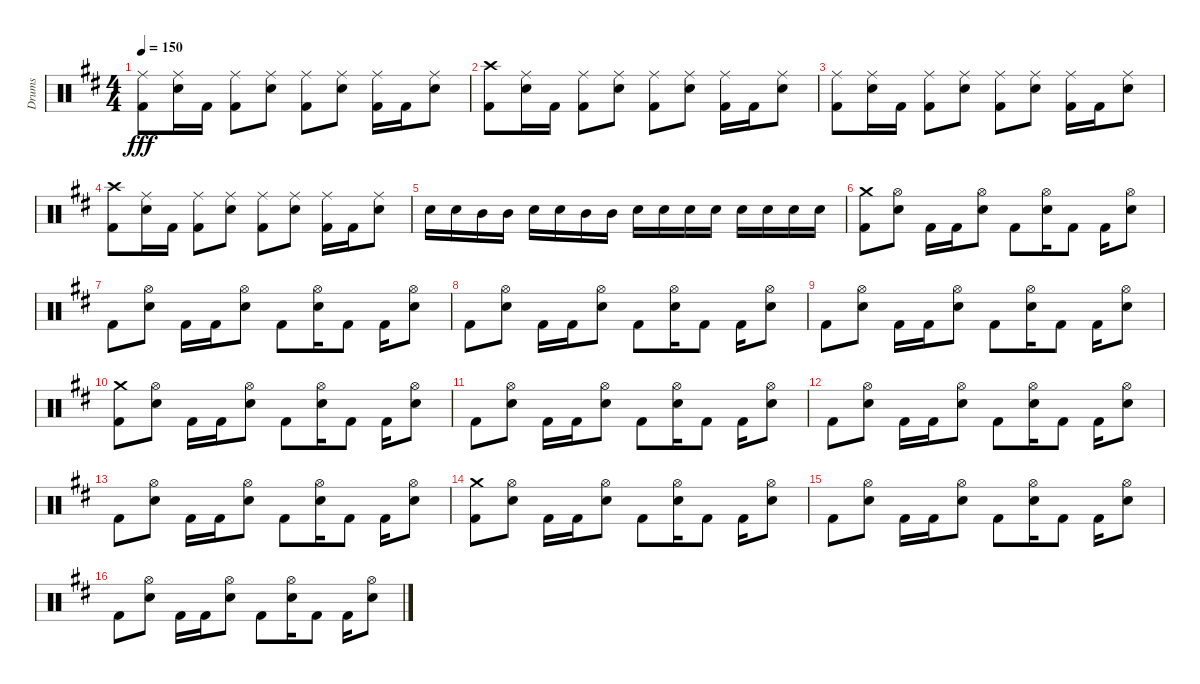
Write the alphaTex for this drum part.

\track ("Drums" "Drums") {instrument percussion}
\staff {score}
\articulation defaults
\ts (4 4)
\tempo 150
\clef neutral
\ks d
("Ride (middle)" "Kick (hit) 2").8{dy fff} ("Ride (middle)" "Electric Snare (hit)").16 "Kick (hit) 2".16 ("Ride (middle)" "Kick (hit) 2").8 ("Ride (middle)" "Electric Snare (hit)").8 ("Ride (middle)" "Kick (hit) 2").8 ("Ride (middle)" "Electric Snare (hit)").8 ("Ride (middle)" "Kick (hit) 2").16 "Kick (hit) 2".16 ("Ride (middle)" "Electric Snare (hit)").8 |
("Crash high (hit)" "Kick (hit) 2").8 ("Ride (middle)" "Electric Snare (hit)").16 "Kick (hit) 2".16 ("Ride (middle)" "Kick (hit) 2").8 ("Ride (middle)" "Electric Snare (hit)").8 ("Ride (middle)" "Kick (hit) 2").8 ("Ride (middle)" "Electric Snare (hit)").8 ("Ride (middle)" "Kick (hit) 2").16 "Kick (hit) 2".16 ("Ride (middle)" "Electric Snare (hit)").8 |
("Ride (middle)" "Kick (hit) 2").8 ("Ride (middle)" "Electric Snare (hit)").16 "Kick (hit) 2".16 ("Ride (middle)" "Kick (hit) 2").8 ("Ride (middle)" "Electric Snare (hit)").8 ("Ride (middle)" "Kick (hit) 2").8 ("Ride (middle)" "Electric Snare (hit)").8 ("Ride (middle)" "Kick (hit) 2").16 "Kick (hit) 2".16 ("Ride (middle)" "Electric Snare (hit)").8 |
("Crash high (hit)" "Kick (hit) 2").8 ("Ride (middle)" "Electric Snare (hit)").16 "Kick (hit) 2".16 ("Ride (middle)" "Kick (hit) 2").8 ("Ride (middle)" "Electric Snare (hit)").8 ("Ride (middle)" "Kick (hit) 2").8 ("Ride (middle)" "Electric Snare (hit)").8 ("Ride (middle)" "Kick (hit) 2").16 "Kick (hit) 2".16 ("Ride (middle)" "Electric Snare (hit)").8 |
"Electric Snare (hit)".16 "Electric Snare (hit)".16 "Mid Tom (hit)".16 "Mid Tom (hit)".16 "Electric Snare (hit)".16 "Electric Snare (hit)".16 "Mid Tom (hit)".16 "Mid Tom (hit)".16 "Electric Snare (hit)".16 "Electric Snare (hit)".16 "Electric Snare (hit)".16 "Electric Snare (hit)".16 "Electric Snare (hit)".16 "Electric Snare (hit)".16 "Electric Snare (hit)".16 "Electric Snare (hit)".16 |
("Crash medium (hit)" "Kick (hit) 2").8 ("Hi-Hat (open)" "Electric Snare (hit)").8 "Kick (hit) 2".16 "Kick (hit) 2".16 ("Hi-Hat (open)" "Electric Snare (hit)").8 "Kick (hit) 2".8 ("Hi-Hat (open)" "Electric Snare (hit)").16 "Kick (hit) 2".8 "Kick (hit) 2".16 ("Hi-Hat (open)" "Electric Snare (hit)").8 |
"Kick (hit) 2".8 ("Hi-Hat (open)" "Electric Snare (hit)").8 "Kick (hit) 2".16 "Kick (hit) 2".16 ("Hi-Hat (open)" "Electric Snare (hit)").8 "Kick (hit) 2".8 ("Hi-Hat (open)" "Electric Snare (hit)").16 "Kick (hit) 2".8 "Kick (hit) 2".16 ("Hi-Hat (open)" "Electric Snare (hit)").8 |
"Kick (hit) 2".8 ("Hi-Hat (open)" "Electric Snare (hit)").8 "Kick (hit) 2".16 "Kick (hit) 2".16 ("Hi-Hat (open)" "Electric Snare (hit)").8 "Kick (hit) 2".8 ("Hi-Hat (open)" "Electric Snare (hit)").16 "Kick (hit) 2".8 "Kick (hit) 2".16 ("Hi-Hat (open)" "Electric Snare (hit)").8 |
"Kick (hit) 2".8 ("Hi-Hat (open)" "Electric Snare (hit)").8 "Kick (hit) 2".16 "Kick (hit) 2".16 ("Hi-Hat (open)" "Electric Snare (hit)").8 "Kick (hit) 2".8 ("Hi-Hat (open)" "Electric Snare (hit)").16 "Kick (hit) 2".8 "Kick (hit) 2".16 ("Hi-Hat (open)" "Electric Snare (hit)").8 |
("Crash medium (hit)" "Kick (hit) 2").8 ("Hi-Hat (open)" "Electric Snare (hit)").8 "Kick (hit) 2".16 "Kick (hit) 2".16 ("Hi-Hat (open)" "Electric Snare (hit)").8 "Kick (hit) 2".8 ("Hi-Hat (open)" "Electric Snare (hit)").16 "Kick (hit) 2".8 "Kick (hit) 2".16 ("Hi-Hat (open)" "Electric Snare (hit)").8 |
"Kick (hit) 2".8 ("Hi-Hat (open)" "Electric Snare (hit)").8 "Kick (hit) 2".16 "Kick (hit) 2".16 ("Hi-Hat (open)" "Electric Snare (hit)").8 "Kick (hit) 2".8 ("Hi-Hat (open)" "Electric Snare (hit)").16 "Kick (hit) 2".8 "Kick (hit) 2".16 ("Hi-Hat (open)" "Electric Snare (hit)").8 |
"Kick (hit) 2".8 ("Hi-Hat (open)" "Electric Snare (hit)").8 "Kick (hit) 2".16 "Kick (hit) 2".16 ("Hi-Hat (open)" "Electric Snare (hit)").8 "Kick (hit) 2".8 ("Hi-Hat (open)" "Electric Snare (hit)").16 "Kick (hit) 2".8 "Kick (hit) 2".16 ("Hi-Hat (open)" "Electric Snare (hit)").8 |
"Kick (hit) 2".8 ("Hi-Hat (open)" "Electric Snare (hit)").8 "Kick (hit) 2".16 "Kick (hit) 2".16 ("Hi-Hat (open)" "Electric Snare (hit)").8 "Kick (hit) 2".8 ("Hi-Hat (open)" "Electric Snare (hit)").16 "Kick (hit) 2".8 "Kick (hit) 2".16 ("Hi-Hat (open)" "Electric Snare (hit)").8 |
("Crash medium (hit)" "Kick (hit) 2").8 ("Hi-Hat (open)" "Electric Snare (hit)").8 "Kick (hit) 2".16 "Kick (hit) 2".16 ("Hi-Hat (open)" "Electric Snare (hit)").8 "Kick (hit) 2".8 ("Hi-Hat (open)" "Electric Snare (hit)").16 "Kick (hit) 2".8 "Kick (hit) 2".16 ("Hi-Hat (open)" "Electric Snare (hit)").8 |
"Kick (hit) 2".8 ("Hi-Hat (open)" "Electric Snare (hit)").8 "Kick (hit) 2".16 "Kick (hit) 2".16 ("Hi-Hat (open)" "Electric Snare (hit)").8 "Kick (hit) 2".8 ("Hi-Hat (open)" "Electric Snare (hit)").16 "Kick (hit) 2".8 "Kick (hit) 2".16 ("Hi-Hat (open)" "Electric Snare (hit)").8 |
"Kick (hit) 2".8 ("Hi-Hat (open)" "Electric Snare (hit)").8 "Kick (hit) 2".16 "Kick (hit) 2".16 ("Hi-Hat (open)" "Electric Snare (hit)").8 "Kick (hit) 2".8 ("Hi-Hat (open)" "Electric Snare (hit)").16 "Kick (hit) 2".8 "Kick (hit) 2".16 ("Hi-Hat (open)" "Electric Snare (hit)").8
